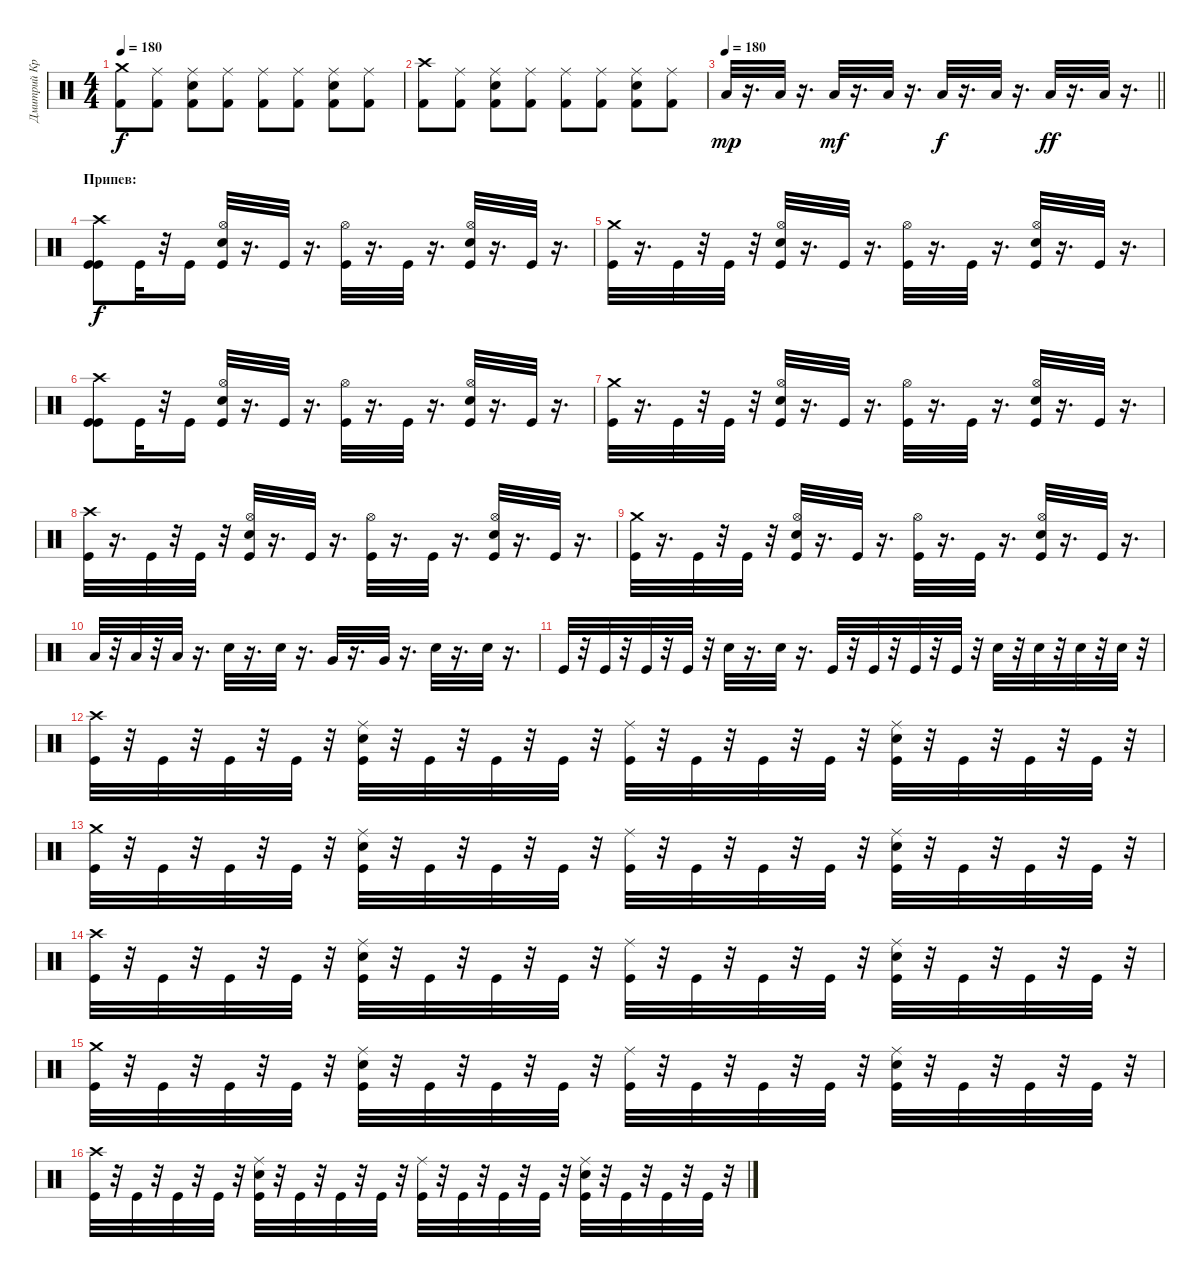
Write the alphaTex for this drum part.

\track ("Дмитрий Кривенков" "Дмитрий Кр") {instrument percussion}
\staff {score}
\articulation defaults
\ts (4 4)
\tempo 180
\clef neutral
\ks c
("Crash medium (hit)" "Kick (hit) 2").8{dy f} ("Kick (hit) 2" "Ride (middle)").8 ("Ride (middle)" "Kick (hit) 2" "Snare (hit) 2").8 ("Ride (middle)" "Kick (hit) 2").8 ("Ride (middle)" "Kick (hit) 2").8 ("Kick (hit) 2" "Ride (middle)").8 ("Snare (hit) 2" "Ride (middle)" "Kick (hit) 2").8 ("Ride (middle)" "Kick (hit) 2").8 |
("Crash high (hit)" "Kick (hit) 2").8 ("Ride (middle)" "Kick (hit) 2").8 ("Ride (middle)" "Kick (hit) 2" "Snare (hit) 2").8 ("Kick (hit) 2" "Ride (middle)").8 ("Kick (hit) 2" "Ride (middle)").8 ("Kick (hit) 2" "Ride (middle)").8 ("Kick (hit) 2" "Snare (hit) 2" "Ride (middle)").8 ("Ride (middle)" "Kick (hit) 2").8 |
\tempo 180
\barLineRight lightlight "Low Floor Tom (hit)".32{dy mp}
r.16{d} "Low Floor Tom (hit)".32 r.16{d} "Low Floor Tom (hit)".32{dy mf} r.16{d} "Low Floor Tom (hit)".32 r.16{d} "Low Floor Tom (hit)".32{dy f} r.16{d} "Low Floor Tom (hit)".32 r.16{d} "Low Floor Tom (hit)".32{dy ff} r.16{d} "Low Floor Tom (hit)".32 r.16{d} |
\section ("" "Припев:")
("Kick (hit)" "Crash high (hit)" "Kick (hit)").8{dy f} "Kick (hit)".32 r.32 "Kick (hit)".16 ("Hi-Hat (open)" "Electric Snare (hit)" "Kick (hit)").32 r.16{d} "Kick (hit)".32 r.16{d} ("Hi-Hat (open)" "Kick (hit)").32 r.16{d} "Kick (hit)".32 r.16{d} ("Hi-Hat (open)" "Kick (hit)" "Electric Snare (hit)").32 r.16{d} "Kick (hit)".32 r.16{d} |
("Kick (hit)" "Crash medium (hit)").32 r.16{d} "Kick (hit)".32 r.32 "Kick (hit)".32 r.32 ("Kick (hit)" "Electric Snare (hit)" "Hi-Hat (open)").32 r.16{d} "Kick (hit)".32 r.16{d} ("Kick (hit)" "Hi-Hat (open)").32 r.16{d} "Kick (hit)".32 r.16{d} ("Kick (hit)" "Hi-Hat (open)" "Electric Snare (hit)").32 r.16{d} "Kick (hit)".32 r.16{d} |
("Kick (hit)" "Crash high (hit)" "Kick (hit)").8 "Kick (hit)".32 r.32 "Kick (hit)".16 ("Kick (hit)" "Electric Snare (hit)" "Hi-Hat (open)").32 r.16{d} "Kick (hit)".32 r.16{d} ("Kick (hit)" "Hi-Hat (open)").32 r.16{d} "Kick (hit)".32 r.16{d} ("Electric Snare (hit)" "Kick (hit)" "Hi-Hat (open)").32 r.16{d} "Kick (hit)".32 r.16{d} |
("Crash medium (hit)" "Kick (hit)").32 r.16{d} "Kick (hit)".32 r.32 "Kick (hit)".32 r.32 ("Kick (hit)" "Electric Snare (hit)" "Hi-Hat (open)").32 r.16{d} "Kick (hit)".32 r.16{d} ("Kick (hit)" "Hi-Hat (open)").32 r.16{d} "Kick (hit)".32 r.16{d} ("Kick (hit)" "Hi-Hat (open)" "Electric Snare (hit)").32 r.16{d} "Kick (hit)".32 r.16{d} |
("Kick (hit)" "Crash high (hit)").32 r.16{d} "Kick (hit)".32 r.32 "Kick (hit)".32 r.32 ("Kick (hit)" "Electric Snare (hit)" "Hi-Hat (open)").32 r.16{d} "Kick (hit)".32 r.16{d} ("Kick (hit)" "Hi-Hat (open)").32 r.16{d} "Kick (hit)".32 r.16{d} ("Electric Snare (hit)" "Kick (hit)" "Hi-Hat (open)").32 r.16{d} "Kick (hit)".32 r.16{d} |
("Kick (hit)" "Crash medium (hit)").32 r.16{d} "Kick (hit)".32 r.32 "Kick (hit)".32 r.32 ("Kick (hit)" "Electric Snare (hit)" "Hi-Hat (open)").32 r.16{d} "Kick (hit)".32 r.16{d} ("Kick (hit)" "Hi-Hat (open)").32 r.16{d} "Kick (hit)".32 r.16{d} ("Kick (hit)" "Hi-Hat (open)" "Electric Snare (hit)").32 r.16{d} "Kick (hit)".32 r.16{d} |
"Low Tom (hit)".32 r.32 "Low Tom (hit)".32 r.32 "Low Tom (hit)".32 r.16{d} "Electric Snare (hit)".32 r.16{d} "Electric Snare (hit)".32 r.16{d} "Very Low Tom (hit)".32 r.16{d} "Very Low Tom (hit)".32 r.16{d} "Electric Snare (hit)".32 r.16{d} "Electric Snare (hit)".32 r.16{d} |
"Kick (hit)".32 r.32 "Kick (hit)".32 r.32 "Kick (hit)".32 r.32 "Kick (hit)".32 r.32 "Electric Snare (hit)".32 r.16{d} "Electric Snare (hit)".32 r.16{d} "Kick (hit)".32 r.32 "Kick (hit)".32 r.32 "Kick (hit)".32 r.32 "Kick (hit)".32 r.32 "Electric Snare (hit)".32 r.32 "Electric Snare (hit)".32 r.32 "Electric Snare (hit)".32 r.32 "Electric Snare (hit)".32 r.32 |
("Crash high (hit)" "Kick (hit)").32 r.32 "Kick (hit)".32 r.32 "Kick (hit)".32 r.32 "Kick (hit)".32 r.32 ("Electric Snare (hit)" "Kick (hit)" "Ride (middle)").32 r.32 "Kick (hit)".32 r.32 "Kick (hit)".32 r.32 "Kick (hit)".32 r.32 ("Kick (hit)" "Ride (middle)").32 r.32 "Kick (hit)".32 r.32 "Kick (hit)".32 r.32 "Kick (hit)".32 r.32 ("Electric Snare (hit)" "Kick (hit)" "Ride (middle)").32 r.32 "Kick (hit)".32 r.32 "Kick (hit)".32 r.32 "Kick (hit)".32 r.32 |
("Kick (hit)" "Crash medium (hit)").32 r.32 "Kick (hit)".32 r.32 "Kick (hit)".32 r.32 "Kick (hit)".32 r.32 ("Kick (hit)" "Electric Snare (hit)" "Ride (middle)").32 r.32 "Kick (hit)".32 r.32 "Kick (hit)".32 r.32 "Kick (hit)".32 r.32 ("Kick (hit)" "Ride (middle)").32 r.32 "Kick (hit)".32 r.32 "Kick (hit)".32 r.32 "Kick (hit)".32 r.32 ("Kick (hit)" "Electric Snare (hit)" "Ride (middle)").32 r.32 "Kick (hit)".32 r.32 "Kick (hit)".32 r.32 "Kick (hit)".32 r.32 |
("Kick (hit)" "Crash high (hit)").32 r.32 "Kick (hit)".32 r.32 "Kick (hit)".32 r.32 "Kick (hit)".32 r.32 ("Ride (middle)" "Kick (hit)" "Electric Snare (hit)").32 r.32 "Kick (hit)".32 r.32 "Kick (hit)".32 r.32 "Kick (hit)".32 r.32 ("Ride (middle)" "Kick (hit)").32 r.32 "Kick (hit)".32 r.32 "Kick (hit)".32 r.32 "Kick (hit)".32 r.32 ("Ride (middle)" "Kick (hit)" "Electric Snare (hit)").32 r.32 "Kick (hit)".32 r.32 "Kick (hit)".32 r.32 "Kick (hit)".32 r.32 |
("Crash medium (hit)" "Kick (hit)").32 r.32 "Kick (hit)".32 r.32 "Kick (hit)".32 r.32 "Kick (hit)".32 r.32 ("Ride (middle)" "Electric Snare (hit)" "Kick (hit)").32 r.32 "Kick (hit)".32 r.32 "Kick (hit)".32 r.32 "Kick (hit)".32 r.32 ("Ride (middle)" "Kick (hit)").32 r.32 "Kick (hit)".32 r.32 "Kick (hit)".32 r.32 "Kick (hit)".32 r.32 ("Kick (hit)" "Electric Snare (hit)" "Ride (middle)").32 r.32 "Kick (hit)".32 r.32 "Kick (hit)".32 r.32 "Kick (hit)".32 r.32 |
("Kick (hit)" "Crash high (hit)").32 r.32 "Kick (hit)".32 r.32 "Kick (hit)".32 r.32 "Kick (hit)".32 r.32 ("Ride (middle)" "Kick (hit)" "Electric Snare (hit)").32 r.32 "Kick (hit)".32 r.32 "Kick (hit)".32 r.32 "Kick (hit)".32 r.32 ("Ride (middle)" "Kick (hit)").32 r.32 "Kick (hit)".32 r.32 "Kick (hit)".32 r.32 "Kick (hit)".32 r.32 ("Ride (middle)" "Kick (hit)" "Electric Snare (hit)").32 r.32 "Kick (hit)".32 r.32 "Kick (hit)".32 r.32 "Kick (hit)".32 r.32
